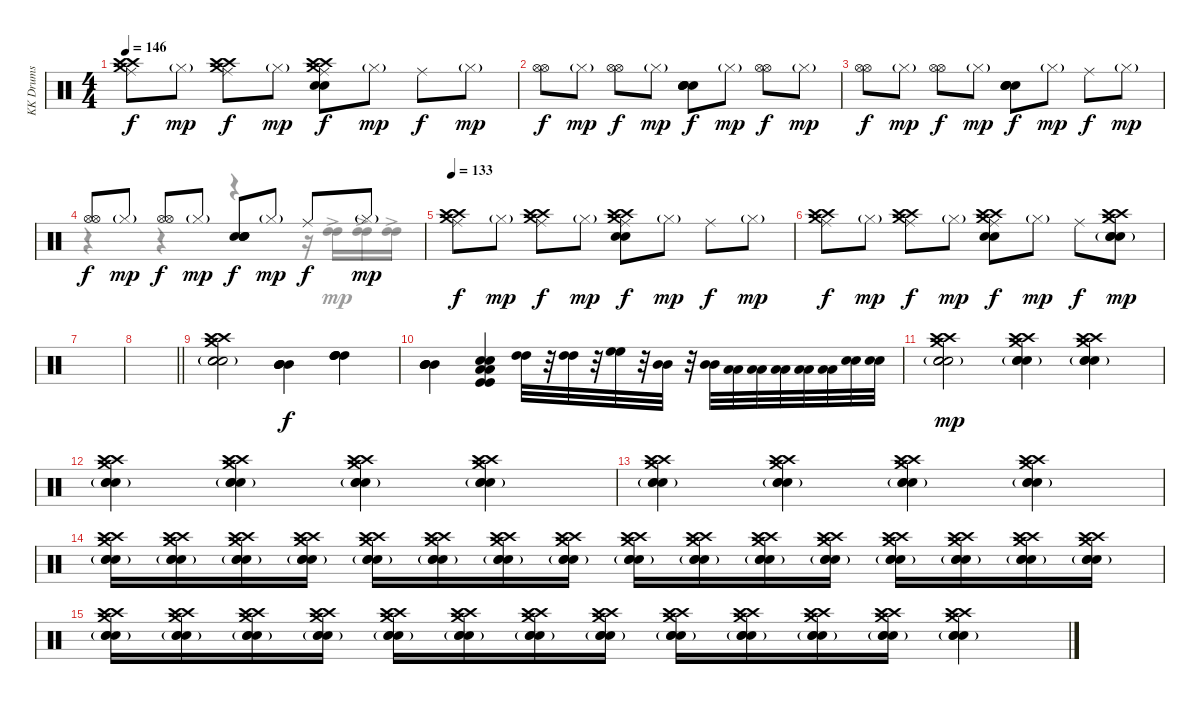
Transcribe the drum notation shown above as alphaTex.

\track ("KK Drums" "KK Drums") {instrument percussion}
\staff {score}
\articulation defaults
\voice
\ts (4 4)
\tempo 146
\clef neutral
\ks c
("Crash high (hit)" "Ride (middle)" "Crash medium (hit)" "Crash high (hit)").8{dy f} "Hi-Hat (closed)"{g}.8{dy mp} ("Crash high (hit)" "Ride (middle)" "Crash medium (hit)" "Crash high (hit)").8{dy f} "Hi-Hat (closed)"{g}.8{dy mp} ("Crash high (hit)" "Ride (middle)" "Snare (hit) 2" "Snare (hit) 2" "Crash medium (hit)" "Crash high (hit)").8{dy f} "Hi-Hat (closed)"{g}.8{dy mp} "Ride (middle)".8{dy f} "Hi-Hat (closed)"{g}.8{dy mp} |
("Hi-Hat (open)" "Hi-Hat (open)").8{dy f} "Hi-Hat (closed)"{g}.8{dy mp} ("Hi-Hat (open)" "Hi-Hat (open)").8{dy f} "Hi-Hat (closed)"{g}.8{dy mp} ("Snare (hit) 2" "Snare (hit) 2" "Snare (hit) 2" "Snare (hit) 2").8{dy f} "Hi-Hat (closed)"{g}.8{dy mp} ("Hi-Hat (open)" "Hi-Hat (open)").8{dy f} "Hi-Hat (closed)"{g}.8{dy mp} |
("Hi-Hat (open)" "Hi-Hat (open)").8{dy f} "Hi-Hat (closed)"{g}.8{dy mp} ("Hi-Hat (open)" "Hi-Hat (open)").8{dy f} "Hi-Hat (closed)"{g}.8{dy mp} ("Snare (hit) 2" "Snare (hit) 2" "Snare (hit) 2" "Snare (hit) 2").8{dy f} "Hi-Hat (closed)"{g}.8{dy mp} "Ride (middle)".8{dy f} "Hi-Hat (closed)"{g}.8{dy mp} |
("Hi-Hat (open)" "Hi-Hat (open)").8{dy f} "Hi-Hat (closed)"{g}.8{dy mp} ("Hi-Hat (open)" "Hi-Hat (open)").8{dy f} "Hi-Hat (closed)"{g}.8{dy mp} ("Snare (hit) 2" "Snare (hit) 2" "Snare (hit) 2" "Snare (hit) 2").8{dy f} "Hi-Hat (closed)"{g}.8{dy mp} "Ride (middle)".8{dy f} "Hi-Hat (closed)"{g}.8{dy mp} |
\tempo 133
("Crash high (hit)" "Ride (middle)" "Crash medium (hit)" "Crash high (hit)").8{dy f} "Hi-Hat (closed)"{g}.8{dy mp} ("Crash high (hit)" "Ride (middle)" "Crash medium (hit)" "Crash high (hit)").8{dy f} "Hi-Hat (closed)"{g}.8{dy mp} ("Crash high (hit)" "Ride (middle)" "Snare (hit) 2" "Snare (hit) 2" "Crash medium (hit)" "Crash high (hit)").8{dy f} "Hi-Hat (closed)"{g}.8{dy mp} "Ride (middle)".8{dy f} "Hi-Hat (closed)"{g}.8{dy mp} |
("Crash high (hit)" "Ride (middle)" "Crash medium (hit)" "Crash high (hit)").8{dy f} "Hi-Hat (closed)"{g}.8{dy mp} ("Crash high (hit)" "Ride (middle)" "Crash medium (hit)" "Crash high (hit)").8{dy f} "Hi-Hat (closed)"{g}.8{dy mp} ("Crash high (hit)" "Ride (middle)" "Snare (hit) 2" "Snare (hit) 2" "Crash medium (hit)" "Crash high (hit)").8{dy f} "Hi-Hat (closed)"{g}.8{dy mp} "Ride (middle)".8{dy f} ("Snare (hit) 2" "Snare (hit) 2" "Snare (hit) 2"{g} "Crash high (hit)" "Crash high (hit)" "Crash medium (hit)").8{dy mp} |
|
\barLineRight lightlight
|
("Snare (hit) 2" "Snare (hit) 2" "Snare (hit) 2"{g} "Crash high (hit)" "Crash high (hit)" "Crash medium (hit)").2 ("Mid Tom (hit)" "Mid Tom (hit)" "Mid Tom (hit)" "Mid Tom (hit)").4{dy f} ("High Tom (hit)" "High Tom (hit)" "High Tom (hit)" "High Tom (hit)").4 |
("Mid Tom (hit)" "Mid Tom (hit)" "Mid Tom (hit)" "Mid Tom (hit)").4 ("Low Floor Tom (hit)" "Snare (hit) 2" "Kick (hit)" "Kick (hit)" "Snare (hit) 2" "Low Floor Tom (hit)").4 ("High Tom (hit)" "High Tom (hit)").32 r.32 ("High Tom (hit)" "High Tom (hit)").32 r.32 ("High Floor Tom (hit)" "High Floor Tom (hit)").32 r.32 ("Mid Tom (hit)" "Mid Tom (hit)").32 r.32 ("Mid Tom (hit)" "Mid Tom (hit)").32 ("Low Tom (hit)" "Low Tom (hit)").32 ("Low Tom (hit)" "Low Tom (hit)").32 ("Low Tom (hit)" "Low Tom (hit)").32 ("Low Floor Tom (hit)" "Low Floor Tom (hit)").32 ("Low Floor Tom (hit)" "Low Floor Tom (hit)").32 ("Electric Snare (hit)" "Electric Snare (hit)").32 ("Electric Snare (hit)" "Electric Snare (hit)").32 |
("Snare (hit) 2" "Snare (hit) 2" "Snare (hit) 2"{g} "Crash high (hit)" "Crash high (hit)" "Crash medium (hit)").2{dy mp} ("Snare (hit) 2" "Snare (hit) 2" "Snare (hit) 2"{g} "Crash high (hit)" "Crash high (hit)" "Crash medium (hit)").4 ("Snare (hit) 2" "Snare (hit) 2" "Snare (hit) 2"{g} "Crash high (hit)" "Crash high (hit)" "Crash medium (hit)").4 |
("Snare (hit) 2" "Snare (hit) 2" "Snare (hit) 2"{g} "Crash high (hit)" "Crash high (hit)" "Crash medium (hit)").4 ("Snare (hit) 2" "Snare (hit) 2" "Snare (hit) 2"{g} "Crash high (hit)" "Crash high (hit)" "Crash medium (hit)").4 ("Snare (hit) 2" "Snare (hit) 2" "Snare (hit) 2"{g} "Crash high (hit)" "Crash high (hit)" "Crash medium (hit)").4 ("Snare (hit) 2" "Snare (hit) 2" "Snare (hit) 2"{g} "Crash high (hit)" "Crash high (hit)" "Crash medium (hit)").4 |
("Snare (hit) 2" "Snare (hit) 2" "Snare (hit) 2"{g} "Crash high (hit)" "Crash high (hit)" "Crash medium (hit)").4 ("Snare (hit) 2" "Snare (hit) 2" "Snare (hit) 2"{g} "Crash high (hit)" "Crash high (hit)" "Crash medium (hit)").4 ("Snare (hit) 2" "Snare (hit) 2" "Snare (hit) 2"{g} "Crash high (hit)" "Crash high (hit)" "Crash medium (hit)").4 ("Snare (hit) 2" "Snare (hit) 2" "Snare (hit) 2"{g} "Crash high (hit)" "Crash high (hit)" "Crash medium (hit)").4 |
("Snare (hit) 2" "Snare (hit) 2" "Snare (hit) 2"{g} "Crash high (hit)" "Crash high (hit)" "Crash medium (hit)").16 ("Snare (hit) 2" "Snare (hit) 2" "Snare (hit) 2"{g} "Crash high (hit)" "Crash high (hit)" "Crash medium (hit)").16 ("Snare (hit) 2" "Snare (hit) 2" "Snare (hit) 2"{g} "Crash high (hit)" "Crash high (hit)" "Crash medium (hit)").16 ("Snare (hit) 2" "Snare (hit) 2" "Snare (hit) 2"{g} "Crash high (hit)" "Crash high (hit)" "Crash medium (hit)").16 ("Snare (hit) 2" "Snare (hit) 2" "Snare (hit) 2"{g} "Crash high (hit)" "Crash high (hit)" "Crash medium (hit)").16 ("Snare (hit) 2" "Snare (hit) 2" "Snare (hit) 2"{g} "Crash high (hit)" "Crash high (hit)" "Crash medium (hit)").16 ("Snare (hit) 2" "Snare (hit) 2" "Snare (hit) 2"{g} "Crash high (hit)" "Crash high (hit)" "Crash medium (hit)").16 ("Snare (hit) 2" "Snare (hit) 2" "Snare (hit) 2"{g} "Crash high (hit)" "Crash high (hit)" "Crash medium (hit)").16 ("Snare (hit) 2" "Snare (hit) 2" "Snare (hit) 2"{g} "Crash high (hit)" "Crash high (hit)" "Crash medium (hit)").16 ("Snare (hit) 2" "Snare (hit) 2" "Snare (hit) 2"{g} "Crash high (hit)" "Crash high (hit)" "Crash medium (hit)").16 ("Snare (hit) 2" "Snare (hit) 2" "Snare (hit) 2"{g} "Crash high (hit)" "Crash high (hit)" "Crash medium (hit)").16 ("Snare (hit) 2" "Snare (hit) 2" "Snare (hit) 2"{g} "Crash high (hit)" "Crash high (hit)" "Crash medium (hit)").16 ("Snare (hit) 2" "Snare (hit) 2" "Snare (hit) 2"{g} "Crash high (hit)" "Crash high (hit)" "Crash medium (hit)").16 ("Snare (hit) 2" "Snare (hit) 2" "Snare (hit) 2"{g} "Crash high (hit)" "Crash high (hit)" "Crash medium (hit)").16 ("Snare (hit) 2" "Snare (hit) 2" "Snare (hit) 2"{g} "Crash high (hit)" "Crash high (hit)" "Crash medium (hit)").16 ("Snare (hit) 2" "Snare (hit) 2" "Snare (hit) 2"{g} "Crash high (hit)" "Crash high (hit)" "Crash medium (hit)").16 |
("Snare (hit) 2" "Snare (hit) 2" "Snare (hit) 2"{g} "Crash high (hit)" "Crash high (hit)" "Crash medium (hit)").16 ("Snare (hit) 2" "Snare (hit) 2" "Snare (hit) 2"{g} "Crash high (hit)" "Crash high (hit)" "Crash medium (hit)").16 ("Snare (hit) 2" "Snare (hit) 2" "Snare (hit) 2"{g} "Crash high (hit)" "Crash high (hit)" "Crash medium (hit)").16 ("Snare (hit) 2" "Snare (hit) 2" "Snare (hit) 2"{g} "Crash high (hit)" "Crash high (hit)" "Crash medium (hit)").16 ("Snare (hit) 2" "Snare (hit) 2" "Snare (hit) 2"{g} "Crash high (hit)" "Crash high (hit)" "Crash medium (hit)").16 ("Snare (hit) 2" "Snare (hit) 2" "Snare (hit) 2"{g} "Crash high (hit)" "Crash high (hit)" "Crash medium (hit)").16 ("Snare (hit) 2" "Snare (hit) 2" "Snare (hit) 2"{g} "Crash high (hit)" "Crash high (hit)" "Crash medium (hit)").16 ("Snare (hit) 2" "Snare (hit) 2" "Snare (hit) 2"{g} "Crash high (hit)" "Crash high (hit)" "Crash medium (hit)").16 ("Snare (hit) 2" "Snare (hit) 2" "Snare (hit) 2"{g} "Crash high (hit)" "Crash high (hit)" "Crash medium (hit)").16 ("Snare (hit) 2" "Snare (hit) 2" "Snare (hit) 2"{g} "Crash high (hit)" "Crash high (hit)" "Crash medium (hit)").16 ("Snare (hit) 2" "Snare (hit) 2" "Snare (hit) 2"{g} "Crash high (hit)" "Crash high (hit)" "Crash medium (hit)").16 ("Snare (hit) 2" "Snare (hit) 2" "Snare (hit) 2"{g} "Crash high (hit)" "Crash high (hit)" "Crash medium (hit)").16 ("Snare (hit) 2" "Snare (hit) 2" "Snare (hit) 2"{g} "Crash high (hit)" "Crash high (hit)" "Crash medium (hit)").4 |
\voice
\clef neutral
\ottava regular
\simile none
\ks c
|
|
|
r.4 r.4 r.4 r.16 ("High Tom (hit)"{ac} "High Tom (hit)"{ac}).16 ("High Tom (hit)"{ac} "High Tom (hit)"{ac}).16 ("High Tom (hit)"{ac} "High Tom (hit)"{ac}).16 |
|
|
|
\barLineRight lightlight
|
|
|
|
|
|
|
|
